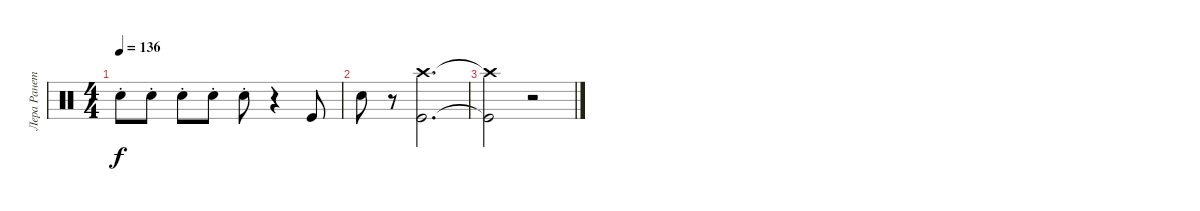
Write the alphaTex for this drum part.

\track ("Лера Ранетка" "Лера Ранет") {instrument percussion}
\staff {score}
\articulation defaults
\ts (4 4)
\tempo 136
\clef neutral
\ks c "Electric Snare (hit)"{st}.8{dy f} "Electric Snare (hit)"{st}.8 "Electric Snare (hit)"{st}.8 "Electric Snare (hit)"{st}.8 "Electric Snare (hit)"{st}.8
r.4 "Kick (hit)".8 |
"Electric Snare (hit)".8 r.8 ("Crash high (hit)" "Kick (hit)").2{d} |
("Crash high (hit)"{t} "Kick (hit)"{t}).2 r.2
